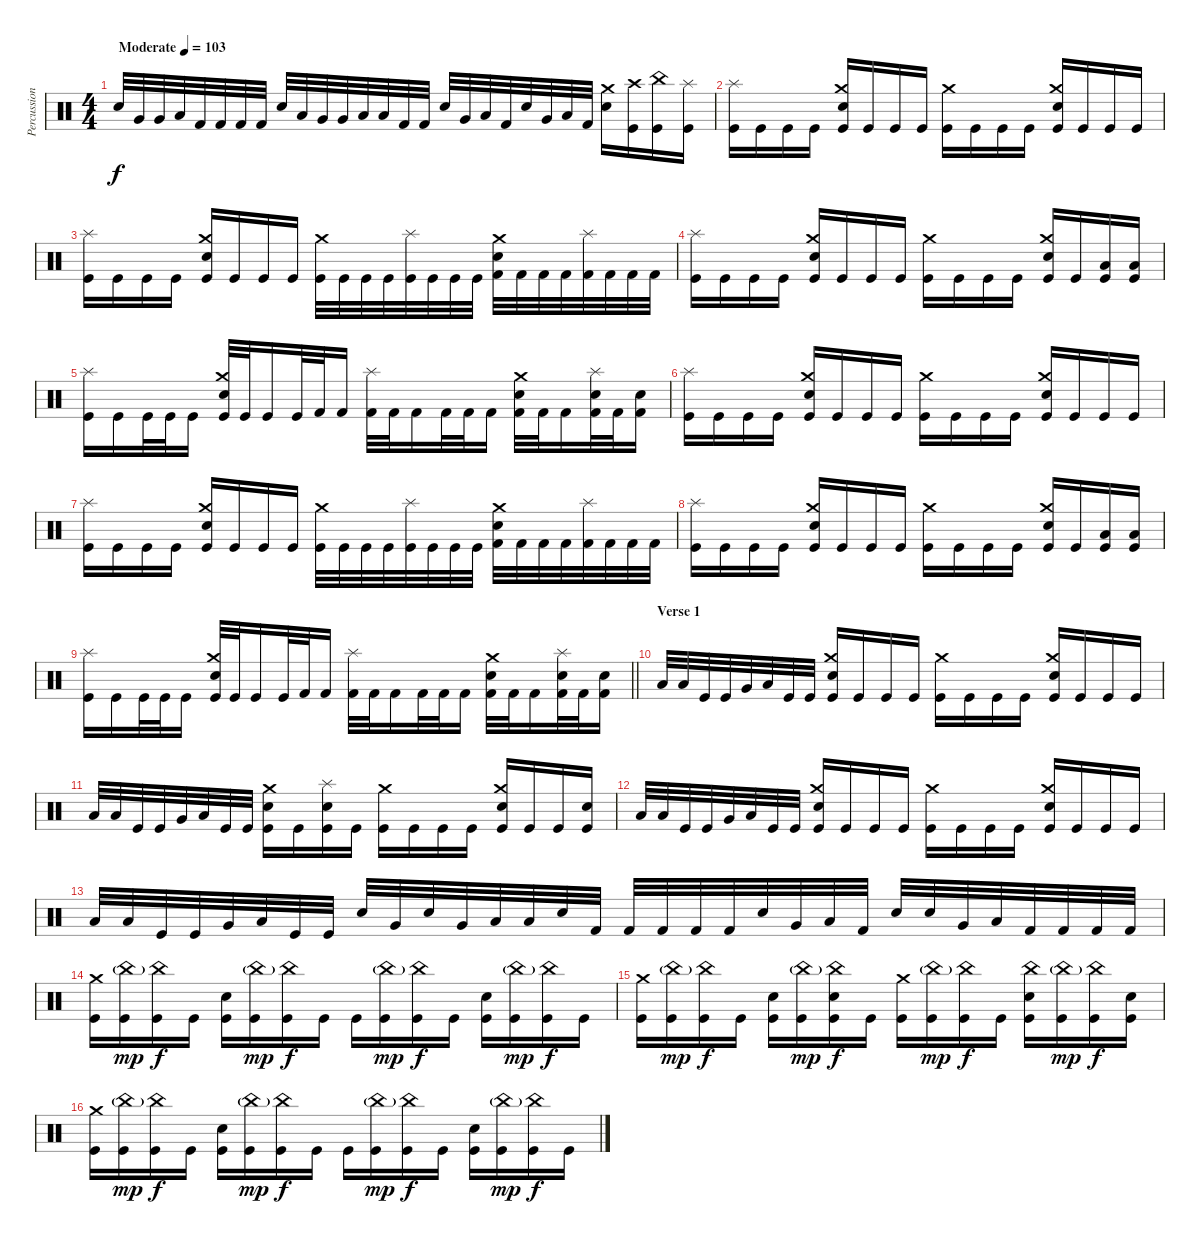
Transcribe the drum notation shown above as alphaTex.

\track ("Percussion" "Percussion") {instrument percussion}
\staff {score}
\articulation defaults
\ts (4 4)
\tempo (103 "Moderate")
\clef neutral
\ks c "Electric Snare (hit)".32{dy f} "Very Low Tom (hit)".32 "Very Low Tom (hit)".32 "Low Floor Tom (hit)".32 "Kick (hit) 2".32 "Kick (hit) 2".32 "Kick (hit) 2".32 "Kick (hit) 2".32 "Electric Snare (hit)".32 "Low Tom (hit)".32 "Very Low Tom (hit)".32 "Very Low Tom (hit)".32 "Low Floor Tom (hit)".32 "Low Floor Tom (hit)".32 "Kick (hit) 2".32 "Kick (hit) 2".32 "Electric Snare (hit)".32 "Very Low Tom (hit)".32 "Low Floor Tom (hit)".32 "Kick (hit) 2".32 "Electric Snare (hit)".32 "Very Low Tom (hit)".32 "Low Floor Tom (hit)".32 "Kick (hit) 2".32
("Electric Snare (hit)" "Crash medium (hit)").16 ("Kick (hit)" "Crash high (hit)").16 ("Kick (hit)" "China (hit)").16 ("Kick (hit)" "Splash (hit)").16 |
("Splash (hit)" "Kick (hit)").16 "Kick (hit)".16 "Kick (hit)".16 "Kick (hit)".16 ("Crash medium (hit)" "Electric Snare (hit)" "Kick (hit)").16 "Kick (hit)".16 "Kick (hit)".16 "Kick (hit)".16 ("Crash medium (hit)" "Kick (hit)").16 "Kick (hit)".16 "Kick (hit)".16 "Kick (hit)".16 ("Crash medium (hit)" "Electric Snare (hit)" "Kick (hit)").16 "Kick (hit)".16 "Kick (hit)".16 "Kick (hit)".16 |
("Splash (hit)" "Kick (hit)").16 "Kick (hit)".16 "Kick (hit)".16 "Kick (hit)".16 ("Crash medium (hit)" "Electric Snare (hit)" "Kick (hit)").16 "Kick (hit)".16 "Kick (hit)".16 "Kick (hit)".16 ("Crash medium (hit)" "Kick (hit)").32 "Kick (hit)".32 "Kick (hit)".32 "Kick (hit)".32 ("Splash (hit)" "Kick (hit)").32 "Kick (hit)".32 "Kick (hit)".32 "Kick (hit)".32 ("Crash medium (hit)" "Electric Snare (hit)" "Kick (hit) 2").32 "Kick (hit) 2".32 "Kick (hit) 2".32 "Kick (hit) 2".32 ("Splash (hit)" "Kick (hit) 2").32 "Kick (hit) 2".32 "Kick (hit) 2".32 "Kick (hit) 2".32 |
("Splash (hit)" "Kick (hit)").16 "Kick (hit)".16 "Kick (hit)".16 "Kick (hit)".16 ("Crash medium (hit)" "Electric Snare (hit)" "Kick (hit)").16 "Kick (hit)".16 "Kick (hit)".16 "Kick (hit)".16 ("Crash medium (hit)" "Kick (hit)").16 "Kick (hit)".16 "Kick (hit)".16 "Kick (hit)".16 ("Crash medium (hit)" "Electric Snare (hit)" "Kick (hit)").16 "Kick (hit)".16 ("Low Floor Tom (hit)" "Kick (hit)").16 ("Low Floor Tom (hit)" "Kick (hit)").16 |
("Splash (hit)" "Kick (hit)").16 "Kick (hit)".16 "Kick (hit)".32 "Kick (hit)".32 "Kick (hit)".16 ("Crash medium (hit)" "Electric Snare (hit)" "Kick (hit)").32 "Kick (hit)".32 "Kick (hit)".16 "Kick (hit)".32 "Kick (hit) 2".32 "Kick (hit) 2".16 ("Splash (hit)" "Kick (hit) 2").32 "Kick (hit) 2".32 "Kick (hit) 2".16 "Kick (hit) 2".32 "Kick (hit) 2".32 "Kick (hit) 2".16 ("Crash medium (hit)" "Electric Snare (hit)" "Kick (hit) 2").32 "Kick (hit) 2".32 "Kick (hit) 2".16 ("Splash (hit)" "Electric Snare (hit)" "Kick (hit) 2").32 "Kick (hit) 2".32 ("Electric Snare (hit)" "Kick (hit) 2").16 |
("Splash (hit)" "Kick (hit)").16 "Kick (hit)".16 "Kick (hit)".16 "Kick (hit)".16 ("Crash medium (hit)" "Electric Snare (hit)" "Kick (hit)").16 "Kick (hit)".16 "Kick (hit)".16 "Kick (hit)".16 ("Crash medium (hit)" "Kick (hit)").16 "Kick (hit)".16 "Kick (hit)".16 "Kick (hit)".16 ("Crash medium (hit)" "Electric Snare (hit)" "Kick (hit)").16 "Kick (hit)".16 "Kick (hit)".16 "Kick (hit)".16 |
("Splash (hit)" "Kick (hit)").16 "Kick (hit)".16 "Kick (hit)".16 "Kick (hit)".16 ("Crash medium (hit)" "Electric Snare (hit)" "Kick (hit)").16 "Kick (hit)".16 "Kick (hit)".16 "Kick (hit)".16 ("Crash medium (hit)" "Kick (hit)").32 "Kick (hit)".32 "Kick (hit)".32 "Kick (hit)".32 ("Splash (hit)" "Kick (hit)").32 "Kick (hit)".32 "Kick (hit)".32 "Kick (hit)".32 ("Crash medium (hit)" "Electric Snare (hit)" "Kick (hit) 2").32 "Kick (hit) 2".32 "Kick (hit) 2".32 "Kick (hit) 2".32 ("Splash (hit)" "Kick (hit) 2").32 "Kick (hit) 2".32 "Kick (hit) 2".32 "Kick (hit) 2".32 |
("Splash (hit)" "Kick (hit)").16 "Kick (hit)".16 "Kick (hit)".16 "Kick (hit)".16 ("Crash medium (hit)" "Electric Snare (hit)" "Kick (hit)").16 "Kick (hit)".16 "Kick (hit)".16 "Kick (hit)".16 ("Crash medium (hit)" "Kick (hit)").16 "Kick (hit)".16 "Kick (hit)".16 "Kick (hit)".16 ("Crash medium (hit)" "Electric Snare (hit)" "Kick (hit)").16 "Kick (hit)".16 ("Low Floor Tom (hit)" "Kick (hit)").16 ("Low Floor Tom (hit)" "Kick (hit)").16 |
\barLineRight lightlight
("Splash (hit)" "Kick (hit)").16 "Kick (hit)".16 "Kick (hit)".32 "Kick (hit)".32 "Kick (hit)".16 ("Crash medium (hit)" "Electric Snare (hit)" "Kick (hit)").32 "Kick (hit)".32 "Kick (hit)".16 "Kick (hit)".32 "Kick (hit) 2".32 "Kick (hit) 2".16 ("Splash (hit)" "Kick (hit) 2").32 "Kick (hit) 2".32 "Kick (hit) 2".16 "Kick (hit) 2".32 "Kick (hit) 2".32 "Kick (hit) 2".16 ("Crash medium (hit)" "Electric Snare (hit)" "Kick (hit) 2").32 "Kick (hit) 2".32 "Kick (hit) 2".16 ("Splash (hit)" "Electric Snare (hit)" "Kick (hit) 2").32 "Kick (hit) 2".32 ("Electric Snare (hit)" "Kick (hit) 2").16 |
\section ("" "Verse 1")
"Low Tom (hit)".32 "Low Tom (hit)".32 "Kick (hit)".32 "Kick (hit)".32 "Very Low Tom (hit)".32 "Low Floor Tom (hit)".32 "Kick (hit)".32 "Kick (hit)".32 ("Crash medium (hit)" "Electric Snare (hit)" "Kick (hit)").16 "Kick (hit)".16 "Kick (hit)".16 "Kick (hit)".16 ("Crash medium (hit)" "Kick (hit)").16 "Kick (hit)".16 "Kick (hit)".16 "Kick (hit)".16 ("Crash medium (hit)" "Electric Snare (hit)" "Kick (hit)").16 "Kick (hit)".16 "Kick (hit)".16 "Kick (hit)".16 |
"Low Tom (hit)".32 "Low Tom (hit)".32 "Kick (hit)".32 "Kick (hit)".32 "Very Low Tom (hit)".32 "Low Floor Tom (hit)".32 "Kick (hit)".32 "Kick (hit)".32 ("Crash medium (hit)" "Electric Snare (hit)" "Kick (hit)").16 "Kick (hit)".16 ("Splash (hit)" "Electric Snare (hit)" "Kick (hit)").16 "Kick (hit)".16 ("Crash medium (hit)" "Kick (hit)").16 "Kick (hit)".16 "Kick (hit)".16 "Kick (hit)".16 ("Crash medium (hit)" "Electric Snare (hit)" "Kick (hit)").16 "Kick (hit)".16 "Kick (hit)".16 ("Electric Snare (hit)" "Kick (hit)").16 |
"Low Tom (hit)".32 "Low Tom (hit)".32 "Kick (hit)".32 "Kick (hit)".32 "Very Low Tom (hit)".32 "Low Floor Tom (hit)".32 "Kick (hit)".32 "Kick (hit)".32 ("Crash medium (hit)" "Electric Snare (hit)" "Kick (hit)").16 "Kick (hit)".16 "Kick (hit)".16 "Kick (hit)".16 ("Crash medium (hit)" "Kick (hit)").16 "Kick (hit)".16 "Kick (hit)".16 "Kick (hit)".16 ("Crash medium (hit)" "Electric Snare (hit)" "Kick (hit)").16 "Kick (hit)".16 "Kick (hit)".16 "Kick (hit)".16 |
"Low Tom (hit)".32 "Low Tom (hit)".32 "Kick (hit)".32 "Kick (hit)".32 "Very Low Tom (hit)".32 "Low Floor Tom (hit)".32 "Kick (hit)".32 "Kick (hit)".32 "Electric Snare (hit)".32 "Very Low Tom (hit)".32 "Electric Snare (hit)".32 "Very Low Tom (hit)".32 "Low Floor Tom (hit)".32 "Low Floor Tom (hit)".32 "Electric Snare (hit)".32 "Kick (hit) 2".32 "Kick (hit) 2".32 "Kick (hit) 2".32 "Kick (hit) 2".32 "Kick (hit) 2".32 "Electric Snare (hit)".32 "Very Low Tom (hit)".32 "Low Floor Tom (hit)".32 "Kick (hit) 2".32 "Electric Snare (hit)".32 "Electric Snare (hit)".32 "Very Low Tom (hit)".32 "Low Floor Tom (hit)".32 "Kick (hit) 2".32 "Kick (hit) 2".32 "Kick (hit) 2".32 "Kick (hit) 2".32 |
("Crash medium (hit)" "Kick (hit)").16 ("China (hit)"{g} "Kick (hit)").16{dy mp} ("China (hit)" "Kick (hit)").16{dy f} "Kick (hit)".16 ("Electric Snare (hit)" "Kick (hit)").16 ("China (hit)"{g} "Kick (hit)").16{dy mp} ("China (hit)" "Kick (hit)").16{dy f} "Kick (hit)".16 "Kick (hit)".16 ("China (hit)"{g} "Kick (hit)").16{dy mp} ("China (hit)" "Kick (hit)").16{dy f} "Kick (hit)".16 ("Electric Snare (hit)" "Kick (hit)").16 ("China (hit)"{g} "Kick (hit)").16{dy mp} ("China (hit)" "Kick (hit)").16{dy f} "Kick (hit)".16 |
("Crash medium (hit)" "Kick (hit)").16 ("China (hit)"{g} "Kick (hit)").16{dy mp} ("China (hit)" "Kick (hit)").16{dy f} "Kick (hit)".16 ("Electric Snare (hit)" "Kick (hit)").16 ("China (hit)"{g} "Kick (hit)").16{dy mp} ("China (hit)" "Electric Snare (hit)" "Kick (hit)").16{dy f} "Kick (hit)".16 ("Crash medium (hit)" "Kick (hit)").16 ("China (hit)"{g} "Kick (hit)").16{dy mp} ("China (hit)" "Kick (hit)").16{dy f} "Kick (hit)".16 ("Electric Snare (hit)" "China (hit)" "Kick (hit)").16 ("China (hit)"{g} "Kick (hit)").16{dy mp} ("China (hit)" "Kick (hit)").16{dy f} ("Electric Snare (hit)" "Kick (hit)").16 |
("Crash medium (hit)" "Kick (hit)").16 ("China (hit)"{g} "Kick (hit)").16{dy mp} ("China (hit)" "Kick (hit)").16{dy f} "Kick (hit)".16 ("Electric Snare (hit)" "Kick (hit)").16 ("China (hit)"{g} "Kick (hit)").16{dy mp} ("China (hit)" "Kick (hit)").16{dy f} "Kick (hit)".16 "Kick (hit)".16 ("China (hit)"{g} "Kick (hit)").16{dy mp} ("China (hit)" "Kick (hit)").16{dy f} "Kick (hit)".16 ("Electric Snare (hit)" "Kick (hit)").16 ("China (hit)"{g} "Kick (hit)").16{dy mp} ("China (hit)" "Kick (hit)").16{dy f} "Kick (hit)".16
